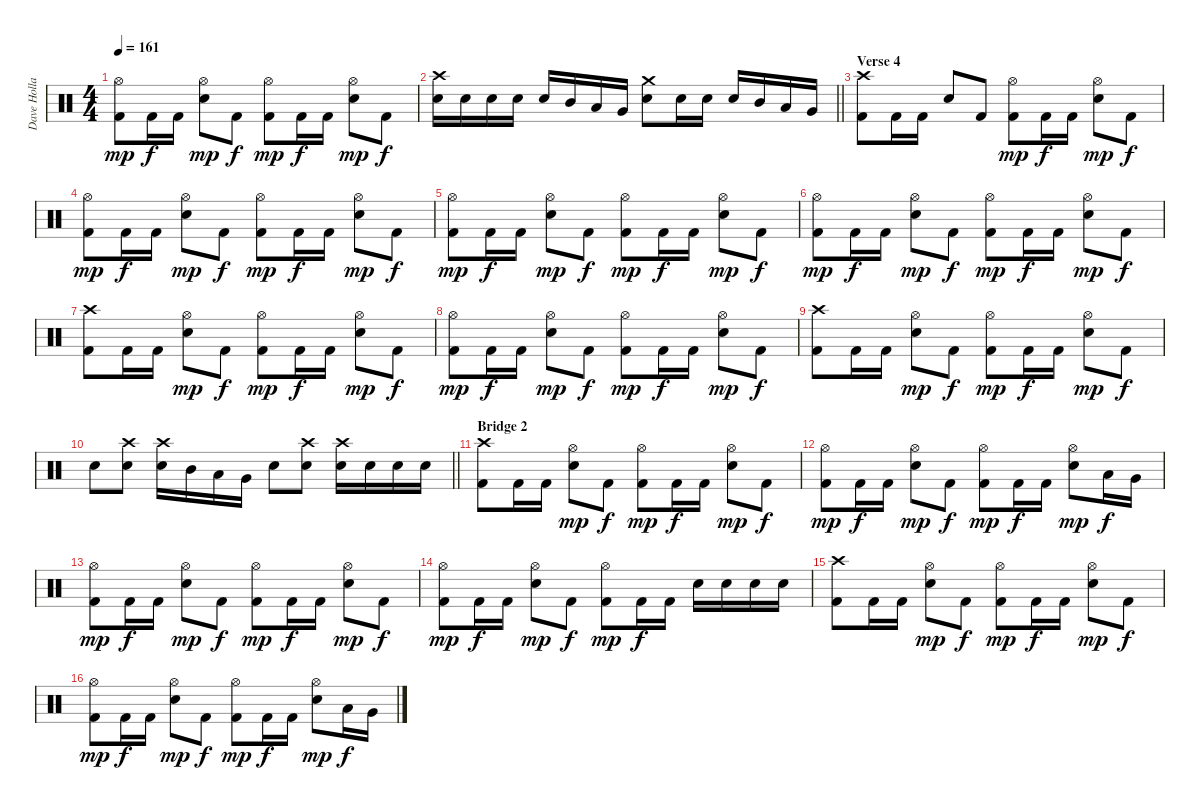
\track ("Dave Holland" "Dave Holla") {instrument percussion}
\staff {score}
\articulation defaults
\ts (4 4)
\tempo 161
\clef neutral
\ks c
("Kick (hit) 2" "Hi-Hat (open)").8{dy mp} "Kick (hit) 2".16{dy f} "Kick (hit) 2".16 ("Hi-Hat (open)" "Snare (hit) 2").8{dy mp} "Kick (hit) 2".8{dy f} ("Kick (hit) 2" "Hi-Hat (open)").8{dy mp} "Kick (hit) 2".16{dy f} "Kick (hit) 2".16 ("Hi-Hat (open)" "Snare (hit) 2").8{dy mp} "Kick (hit) 2".8{dy f} |
\barLineRight lightlight
("Crash high (hit)" "Snare (hit) 2").16 "Snare (hit) 2".16 "Snare (hit) 2".16 "Snare (hit) 2".16 "Snare (hit) 2".16 "Mid Tom (hit)".16 "Low Tom (hit)".16 "Very Low Tom (hit)".16 ("Crash medium (hit)" "Snare (hit) 2").8 "Snare (hit) 2".16 "Snare (hit) 2".16 "Snare (hit) 2".16 "Mid Tom (hit)".16 "Low Tom (hit)".16 "Very Low Tom (hit)".16 |
\section ("" "Verse 4")
("Kick (hit) 2" "Crash high (hit)").8 "Kick (hit) 2".16 "Kick (hit) 2".16 "Snare (hit) 2".8 "Kick (hit) 2".8 ("Kick (hit) 2" "Hi-Hat (open)").8{dy mp} "Kick (hit) 2".16{dy f} "Kick (hit) 2".16 ("Hi-Hat (open)" "Snare (hit) 2").8{dy mp} "Kick (hit) 2".8{dy f} |
("Kick (hit) 2" "Hi-Hat (open)").8{dy mp} "Kick (hit) 2".16{dy f} "Kick (hit) 2".16 ("Hi-Hat (open)" "Snare (hit) 2").8{dy mp} "Kick (hit) 2".8{dy f} ("Kick (hit) 2" "Hi-Hat (open)").8{dy mp} "Kick (hit) 2".16{dy f} "Kick (hit) 2".16 ("Hi-Hat (open)" "Snare (hit) 2").8{dy mp} "Kick (hit) 2".8{dy f} |
("Kick (hit) 2" "Hi-Hat (open)").8{dy mp} "Kick (hit) 2".16{dy f} "Kick (hit) 2".16 ("Hi-Hat (open)" "Snare (hit) 2").8{dy mp} "Kick (hit) 2".8{dy f} ("Kick (hit) 2" "Hi-Hat (open)").8{dy mp} "Kick (hit) 2".16{dy f} "Kick (hit) 2".16 ("Hi-Hat (open)" "Snare (hit) 2").8{dy mp} "Kick (hit) 2".8{dy f} |
("Kick (hit) 2" "Hi-Hat (open)").8{dy mp} "Kick (hit) 2".16{dy f} "Kick (hit) 2".16 ("Hi-Hat (open)" "Snare (hit) 2").8{dy mp} "Kick (hit) 2".8{dy f} ("Kick (hit) 2" "Hi-Hat (open)").8{dy mp} "Kick (hit) 2".16{dy f} "Kick (hit) 2".16 ("Hi-Hat (open)" "Snare (hit) 2").8{dy mp} "Kick (hit) 2".8{dy f} |
("Kick (hit) 2" "Crash high (hit)").8 "Kick (hit) 2".16 "Kick (hit) 2".16 ("Hi-Hat (open)" "Snare (hit) 2").8{dy mp} "Kick (hit) 2".8{dy f} ("Kick (hit) 2" "Hi-Hat (open)").8{dy mp} "Kick (hit) 2".16{dy f} "Kick (hit) 2".16 ("Hi-Hat (open)" "Snare (hit) 2").8{dy mp} "Kick (hit) 2".8{dy f} |
("Kick (hit) 2" "Hi-Hat (open)").8{dy mp} "Kick (hit) 2".16{dy f} "Kick (hit) 2".16 ("Hi-Hat (open)" "Snare (hit) 2").8{dy mp} "Kick (hit) 2".8{dy f} ("Kick (hit) 2" "Hi-Hat (open)").8{dy mp} "Kick (hit) 2".16{dy f} "Kick (hit) 2".16 ("Hi-Hat (open)" "Snare (hit) 2").8{dy mp} "Kick (hit) 2".8{dy f} |
("Kick (hit) 2" "Crash high (hit)").8 "Kick (hit) 2".16 "Kick (hit) 2".16 ("Hi-Hat (open)" "Snare (hit) 2").8{dy mp} "Kick (hit) 2".8{dy f} ("Kick (hit) 2" "Hi-Hat (open)").8{dy mp} "Kick (hit) 2".16{dy f} "Kick (hit) 2".16 ("Hi-Hat (open)" "Snare (hit) 2").8{dy mp} "Kick (hit) 2".8{dy f} |
\barLineRight lightlight "Snare (hit) 2".8
("Crash high (hit)" "Snare (hit) 2").8 ("Crash high (hit)" "Snare (hit) 2").16 "Mid Tom (hit)".16 "Low Tom (hit)".16 "Very Low Tom (hit)".16 "Snare (hit) 2".8 ("Crash high (hit)" "Snare (hit) 2").8 ("Crash high (hit)" "Snare (hit) 2").16 "Snare (hit) 2".16 "Snare (hit) 2".16 "Snare (hit) 2".16 |
\section ("" "Bridge 2")
("Kick (hit) 2" "Crash high (hit)").8 "Kick (hit) 2".16 "Kick (hit) 2".16 ("Hi-Hat (open)" "Snare (hit) 2").8{dy mp} "Kick (hit) 2".8{dy f} ("Kick (hit) 2" "Hi-Hat (open)").8{dy mp} "Kick (hit) 2".16{dy f} "Kick (hit) 2".16 ("Hi-Hat (open)" "Snare (hit) 2").8{dy mp} "Kick (hit) 2".8{dy f} |
("Kick (hit) 2" "Hi-Hat (open)").8{dy mp} "Kick (hit) 2".16{dy f} "Kick (hit) 2".16 ("Hi-Hat (open)" "Snare (hit) 2").8{dy mp} "Kick (hit) 2".8{dy f} ("Kick (hit) 2" "Hi-Hat (open)").8{dy mp} "Kick (hit) 2".16{dy f} "Kick (hit) 2".16 ("Hi-Hat (open)" "Snare (hit) 2").8{dy mp} "Low Tom (hit)".16{dy f} "Very Low Tom (hit)".16 |
("Kick (hit) 2" "Hi-Hat (open)").8{dy mp} "Kick (hit) 2".16{dy f} "Kick (hit) 2".16 ("Hi-Hat (open)" "Snare (hit) 2").8{dy mp} "Kick (hit) 2".8{dy f} ("Kick (hit) 2" "Hi-Hat (open)").8{dy mp} "Kick (hit) 2".16{dy f} "Kick (hit) 2".16 ("Hi-Hat (open)" "Snare (hit) 2").8{dy mp} "Kick (hit) 2".8{dy f} |
("Kick (hit) 2" "Hi-Hat (open)").8{dy mp} "Kick (hit) 2".16{dy f} "Kick (hit) 2".16 ("Hi-Hat (open)" "Snare (hit) 2").8{dy mp} "Kick (hit) 2".8{dy f} ("Kick (hit) 2" "Hi-Hat (open)").8{dy mp} "Kick (hit) 2".16{dy f} "Kick (hit) 2".16 "Snare (hit) 2".16 "Snare (hit) 2".16 "Snare (hit) 2".16 "Snare (hit) 2".16 |
("Kick (hit) 2" "Crash high (hit)").8 "Kick (hit) 2".16 "Kick (hit) 2".16 ("Hi-Hat (open)" "Snare (hit) 2").8{dy mp} "Kick (hit) 2".8{dy f} ("Kick (hit) 2" "Hi-Hat (open)").8{dy mp} "Kick (hit) 2".16{dy f} "Kick (hit) 2".16 ("Hi-Hat (open)" "Snare (hit) 2").8{dy mp} "Kick (hit) 2".8{dy f} |
("Kick (hit) 2" "Hi-Hat (open)").8{dy mp} "Kick (hit) 2".16{dy f} "Kick (hit) 2".16 ("Hi-Hat (open)" "Snare (hit) 2").8{dy mp} "Kick (hit) 2".8{dy f} ("Kick (hit) 2" "Hi-Hat (open)").8{dy mp} "Kick (hit) 2".16{dy f} "Kick (hit) 2".16 ("Hi-Hat (open)" "Snare (hit) 2").8{dy mp} "Low Tom (hit)".16{dy f} "Very Low Tom (hit)".16
